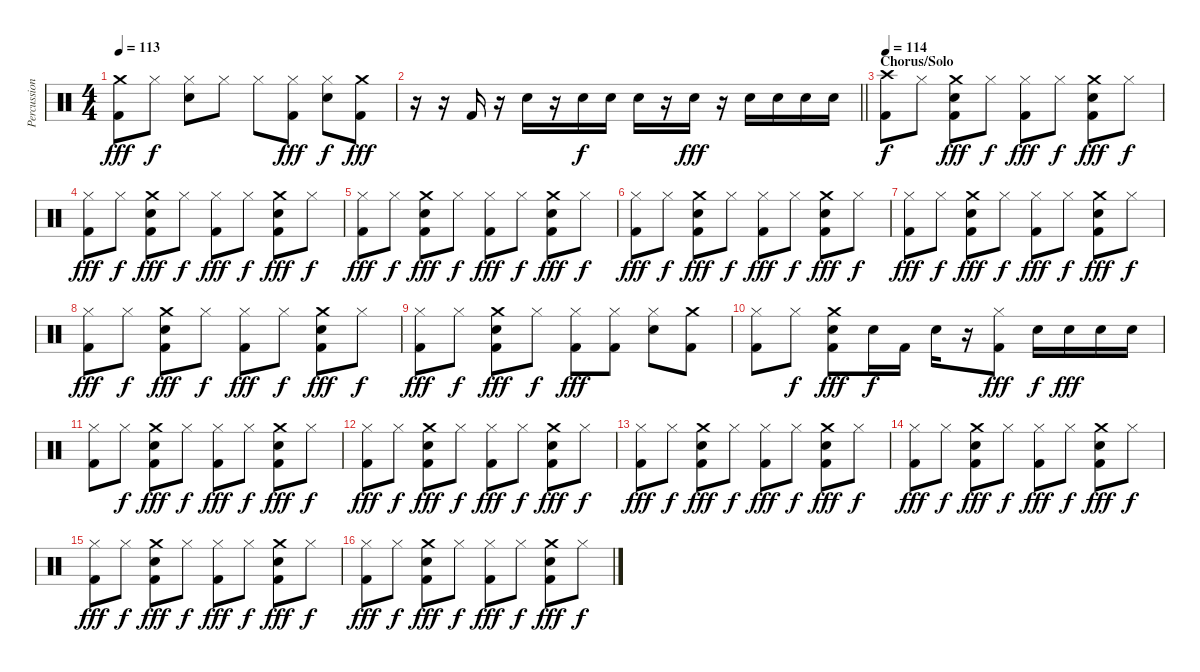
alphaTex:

\track ("Percussion" "Percussion") {instrument percussion}
\staff {score}
\articulation defaults
\ts (4 4)
\tempo 113
\clef neutral
\ks c
("Crash medium (hit)" "Kick (hit) 2").8{dy fff} "Hi-Hat (closed)".8{dy f} ("Hi-Hat (closed)" "Snare (hit) 2").8 "Hi-Hat (closed)".8 "Hi-Hat (closed)".8 ("Hi-Hat (closed)" "Kick (hit) 2").8{dy fff} ("Hi-Hat (closed)" "Snare (hit) 2").8{dy f} ("Crash medium (hit)" "Kick (hit) 2").8{dy fff} |
\barLineRight lightlight
r.16 r.16 "Kick (hit) 2".16 r.16 "Snare (hit) 2".16 r.16 "Snare (hit) 2".16{dy f} "Snare (hit) 2".16 "Snare (hit) 2".16 r.16 "Snare (hit) 2".16{dy fff} r.16 "Snare (hit) 2".16 "Snare (hit) 2".16 "Snare (hit) 2".16 "Snare (hit) 2".16 |
\section ("" "Chorus/Solo")
\tempo 114
("Crash high (hit)" "Kick (hit) 2").8{dy f} "Hi-Hat (closed)".8 ("Crash medium (hit)" "Snare (hit) 2" "Kick (hit) 2").8{dy fff} "Hi-Hat (closed)".8{dy f} ("Hi-Hat (closed)" "Kick (hit) 2").8{dy fff} "Hi-Hat (closed)".8{dy f} ("Crash medium (hit)" "Snare (hit) 2" "Kick (hit) 2").8{dy fff} "Hi-Hat (closed)".8{dy f} |
("Hi-Hat (closed)" "Kick (hit) 2").8{dy fff} "Hi-Hat (closed)".8{dy f} ("Crash medium (hit)" "Snare (hit) 2" "Kick (hit) 2").8{dy fff} "Hi-Hat (closed)".8{dy f} ("Hi-Hat (closed)" "Kick (hit) 2").8{dy fff} "Hi-Hat (closed)".8{dy f} ("Crash medium (hit)" "Snare (hit) 2" "Kick (hit) 2").8{dy fff} "Hi-Hat (closed)".8{dy f} |
("Hi-Hat (closed)" "Kick (hit) 2").8{dy fff} "Hi-Hat (closed)".8{dy f} ("Crash medium (hit)" "Snare (hit) 2" "Kick (hit) 2").8{dy fff} "Hi-Hat (closed)".8{dy f} ("Hi-Hat (closed)" "Kick (hit) 2").8{dy fff} "Hi-Hat (closed)".8{dy f} ("Crash medium (hit)" "Snare (hit) 2" "Kick (hit) 2").8{dy fff} "Hi-Hat (closed)".8{dy f} |
("Hi-Hat (closed)" "Kick (hit) 2").8{dy fff} "Hi-Hat (closed)".8{dy f} ("Crash medium (hit)" "Snare (hit) 2" "Kick (hit) 2").8{dy fff} "Hi-Hat (closed)".8{dy f} ("Hi-Hat (closed)" "Kick (hit) 2").8{dy fff} "Hi-Hat (closed)".8{dy f} ("Crash medium (hit)" "Snare (hit) 2" "Kick (hit) 2").8{dy fff} "Hi-Hat (closed)".8{dy f} |
("Hi-Hat (closed)" "Kick (hit) 2").8{dy fff} "Hi-Hat (closed)".8{dy f} ("Crash medium (hit)" "Snare (hit) 2" "Kick (hit) 2").8{dy fff} "Hi-Hat (closed)".8{dy f} ("Hi-Hat (closed)" "Kick (hit) 2").8{dy fff} "Hi-Hat (closed)".8{dy f} ("Crash medium (hit)" "Snare (hit) 2" "Kick (hit) 2").8{dy fff} "Hi-Hat (closed)".8{dy f} |
("Hi-Hat (closed)" "Kick (hit) 2").8{dy fff} "Hi-Hat (closed)".8{dy f} ("Crash medium (hit)" "Snare (hit) 2" "Kick (hit) 2").8{dy fff} "Hi-Hat (closed)".8{dy f} ("Hi-Hat (closed)" "Kick (hit) 2").8{dy fff} "Hi-Hat (closed)".8{dy f} ("Crash medium (hit)" "Snare (hit) 2" "Kick (hit) 2").8{dy fff} "Hi-Hat (closed)".8{dy f} |
("Hi-Hat (closed)" "Kick (hit) 2").8{dy fff} "Hi-Hat (closed)".8{dy f} ("Crash medium (hit)" "Snare (hit) 2" "Kick (hit) 2").8{dy fff} "Hi-Hat (closed)".8{dy f} ("Hi-Hat (closed)" "Kick (hit) 2").8{dy fff} ("Hi-Hat (closed)" "Kick (hit) 2").8 ("Hi-Hat (closed)" "Snare (hit) 2").8 ("Crash medium (hit)" "Kick (hit) 2").8 |
("Hi-Hat (closed)" "Kick (hit) 2").8 "Hi-Hat (closed)".8{dy f} ("Crash medium (hit)" "Snare (hit) 2" "Kick (hit) 2").8{dy fff} "Snare (hit) 2".16{dy f} "Kick (hit) 2".16 "Snare (hit) 2".16 r.16 ("Hi-Hat (closed)" "Kick (hit) 2").8{dy fff} "Snare (hit) 2".16{dy f} "Snare (hit) 2".16{dy fff} "Snare (hit) 2".16 "Snare (hit) 2".16 |
("Hi-Hat (closed)" "Kick (hit) 2").8 "Hi-Hat (closed)".8{dy f} ("Crash medium (hit)" "Snare (hit) 2" "Kick (hit) 2").8{dy fff} "Hi-Hat (closed)".8{dy f} ("Hi-Hat (closed)" "Kick (hit) 2").8{dy fff} "Hi-Hat (closed)".8{dy f} ("Crash medium (hit)" "Snare (hit) 2" "Kick (hit) 2").8{dy fff} "Hi-Hat (closed)".8{dy f} |
("Hi-Hat (closed)" "Kick (hit) 2").8{dy fff} "Hi-Hat (closed)".8{dy f} ("Crash medium (hit)" "Snare (hit) 2" "Kick (hit) 2").8{dy fff} "Hi-Hat (closed)".8{dy f} ("Hi-Hat (closed)" "Kick (hit) 2").8{dy fff} "Hi-Hat (closed)".8{dy f} ("Crash medium (hit)" "Snare (hit) 2" "Kick (hit) 2").8{dy fff} "Hi-Hat (closed)".8{dy f} |
("Hi-Hat (closed)" "Kick (hit) 2").8{dy fff} "Hi-Hat (closed)".8{dy f} ("Crash medium (hit)" "Snare (hit) 2" "Kick (hit) 2").8{dy fff} "Hi-Hat (closed)".8{dy f} ("Hi-Hat (closed)" "Kick (hit) 2").8{dy fff} "Hi-Hat (closed)".8{dy f} ("Crash medium (hit)" "Snare (hit) 2" "Kick (hit) 2").8{dy fff} "Hi-Hat (closed)".8{dy f} |
("Hi-Hat (closed)" "Kick (hit) 2").8{dy fff} "Hi-Hat (closed)".8{dy f} ("Crash medium (hit)" "Snare (hit) 2" "Kick (hit) 2").8{dy fff} "Hi-Hat (closed)".8{dy f} ("Hi-Hat (closed)" "Kick (hit) 2").8{dy fff} "Hi-Hat (closed)".8{dy f} ("Crash medium (hit)" "Snare (hit) 2" "Kick (hit) 2").8{dy fff} "Hi-Hat (closed)".8{dy f} |
("Hi-Hat (closed)" "Kick (hit) 2").8{dy fff} "Hi-Hat (closed)".8{dy f} ("Crash medium (hit)" "Snare (hit) 2" "Kick (hit) 2").8{dy fff} "Hi-Hat (closed)".8{dy f} ("Hi-Hat (closed)" "Kick (hit) 2").8{dy fff} "Hi-Hat (closed)".8{dy f} ("Crash medium (hit)" "Snare (hit) 2" "Kick (hit) 2").8{dy fff} "Hi-Hat (closed)".8{dy f} |
("Hi-Hat (closed)" "Kick (hit) 2").8{dy fff} "Hi-Hat (closed)".8{dy f} ("Crash medium (hit)" "Snare (hit) 2" "Kick (hit) 2").8{dy fff} "Hi-Hat (closed)".8{dy f} ("Hi-Hat (closed)" "Kick (hit) 2").8{dy fff} "Hi-Hat (closed)".8{dy f} ("Crash medium (hit)" "Snare (hit) 2" "Kick (hit) 2").8{dy fff} "Hi-Hat (closed)".8{dy f}
